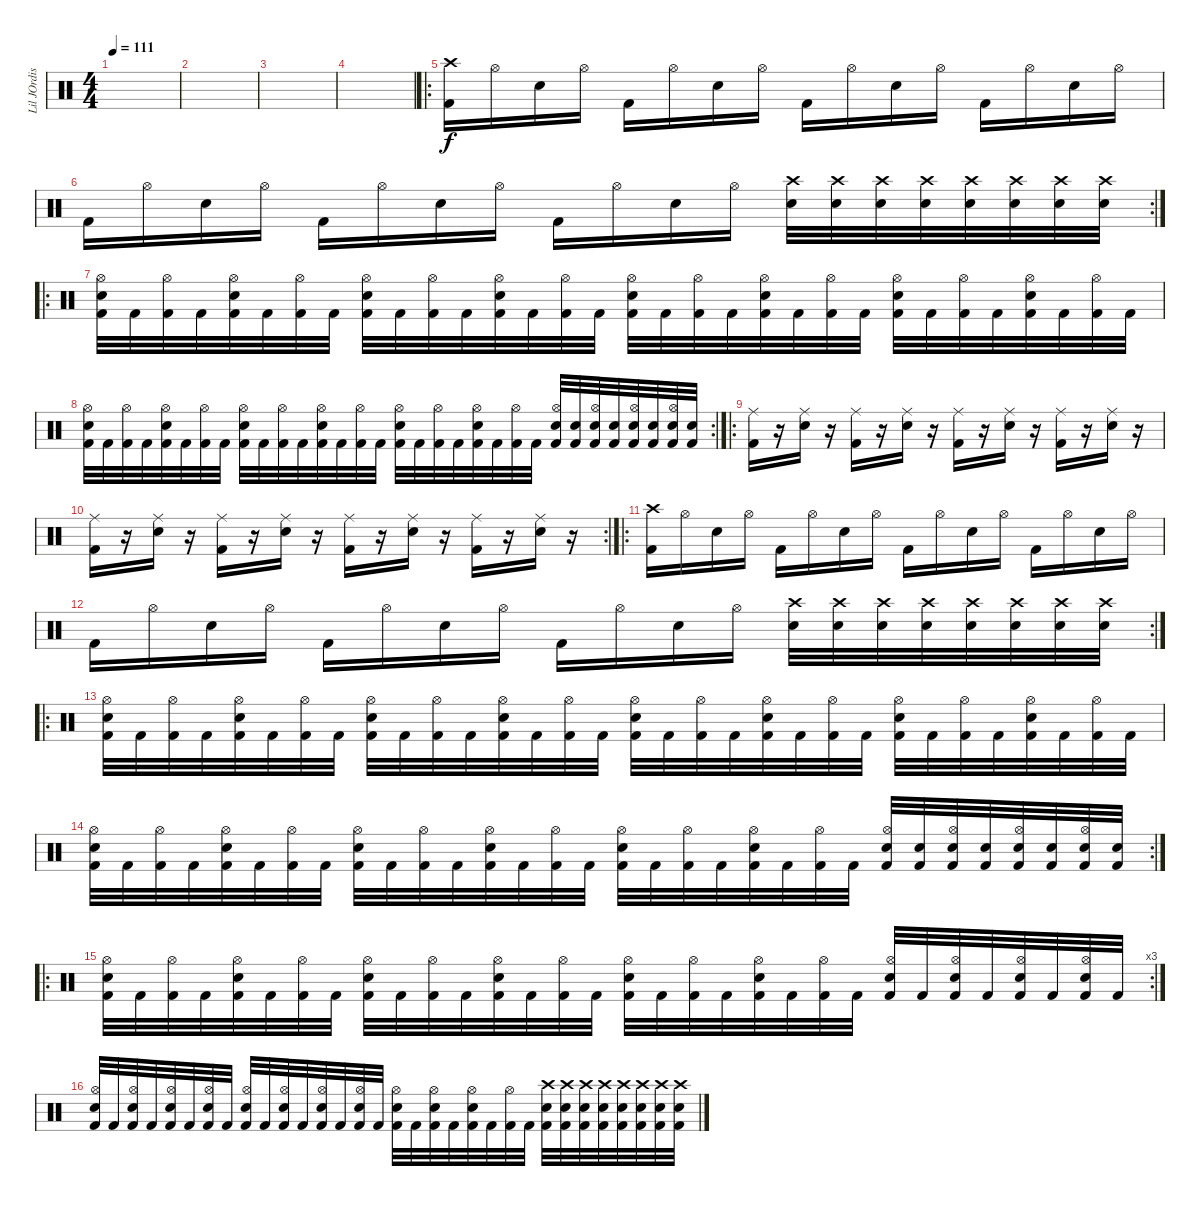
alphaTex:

\track ("Lil JOrdison" "Lil JOrdis") {instrument percussion}
\staff {score}
\articulation defaults
\ts (4 4)
\tempo 111
\clef neutral
\ks c
|
|
|
|
\ro
("Crash high (hit)" "Kick (hit) 2").16 "Hi-Hat (open)".16 "Electric Snare (hit)".16 "Hi-Hat (open)".16 "Kick (hit) 2".16 "Hi-Hat (open)".16 "Electric Snare (hit)".16 "Hi-Hat (open)".16 "Kick (hit) 2".16 "Hi-Hat (open)".16 "Electric Snare (hit)".16 "Hi-Hat (open)".16 "Kick (hit) 2".16 "Hi-Hat (open)".16 "Electric Snare (hit)".16 "Hi-Hat (open)".16 |
\rc 2 "Kick (hit) 2".16 "Hi-Hat (open)".16 "Electric Snare (hit)".16 "Hi-Hat (open)".16 "Kick (hit) 2".16 "Hi-Hat (open)".16 "Electric Snare (hit)".16 "Hi-Hat (open)".16 "Kick (hit) 2".16 "Hi-Hat (open)".16 "Electric Snare (hit)".16 "Hi-Hat (open)".16
("Crash high (hit)" "Electric Snare (hit)").32 ("Crash high (hit)" "Electric Snare (hit)").32 ("Crash high (hit)" "Electric Snare (hit)").32 ("Crash high (hit)" "Electric Snare (hit)").32 ("Crash high (hit)" "Electric Snare (hit)").32 ("Crash high (hit)" "Electric Snare (hit)").32 ("Crash high (hit)" "Electric Snare (hit)").32 ("Crash high (hit)" "Electric Snare (hit)").32 |
\ro
("Hi-Hat (open)" "Electric Snare (hit)" "Kick (hit) 2").32 "Kick (hit) 2".32 ("Hi-Hat (open)" "Kick (hit) 2").32 "Kick (hit) 2".32 ("Hi-Hat (open)" "Electric Snare (hit)" "Kick (hit) 2").32 "Kick (hit) 2".32 ("Hi-Hat (open)" "Kick (hit) 2").32 "Kick (hit) 2".32 ("Hi-Hat (open)" "Electric Snare (hit)" "Kick (hit) 2").32 "Kick (hit) 2".32 ("Hi-Hat (open)" "Kick (hit) 2").32 "Kick (hit) 2".32 ("Hi-Hat (open)" "Electric Snare (hit)" "Kick (hit) 2").32 "Kick (hit) 2".32 ("Hi-Hat (open)" "Kick (hit) 2").32 "Kick (hit) 2".32 ("Hi-Hat (open)" "Electric Snare (hit)" "Kick (hit) 2").32 "Kick (hit) 2".32 ("Hi-Hat (open)" "Kick (hit) 2").32 "Kick (hit) 2".32 ("Hi-Hat (open)" "Electric Snare (hit)" "Kick (hit) 2").32 "Kick (hit) 2".32 ("Hi-Hat (open)" "Kick (hit) 2").32 "Kick (hit) 2".32 ("Hi-Hat (open)" "Electric Snare (hit)" "Kick (hit) 2").32 "Kick (hit) 2".32 ("Hi-Hat (open)" "Kick (hit) 2").32 "Kick (hit) 2".32 ("Hi-Hat (open)" "Electric Snare (hit)" "Kick (hit) 2").32 "Kick (hit) 2".32 ("Hi-Hat (open)" "Kick (hit) 2").32 "Kick (hit) 2".32 |
\rc 2
("Hi-Hat (open)" "Electric Snare (hit)" "Kick (hit) 2").32 "Kick (hit) 2".32 ("Hi-Hat (open)" "Kick (hit) 2").32 "Kick (hit) 2".32 ("Hi-Hat (open)" "Electric Snare (hit)" "Kick (hit) 2").32 "Kick (hit) 2".32 ("Hi-Hat (open)" "Kick (hit) 2").32 "Kick (hit) 2".32 ("Hi-Hat (open)" "Electric Snare (hit)" "Kick (hit) 2").32 "Kick (hit) 2".32 ("Hi-Hat (open)" "Kick (hit) 2").32 "Kick (hit) 2".32 ("Hi-Hat (open)" "Electric Snare (hit)" "Kick (hit) 2").32 "Kick (hit) 2".32 ("Hi-Hat (open)" "Kick (hit) 2").32 "Kick (hit) 2".32 ("Hi-Hat (open)" "Electric Snare (hit)" "Kick (hit) 2").32 "Kick (hit) 2".32 ("Hi-Hat (open)" "Kick (hit) 2").32 "Kick (hit) 2".32 ("Hi-Hat (open)" "Electric Snare (hit)" "Kick (hit) 2").32 "Kick (hit) 2".32 ("Hi-Hat (open)" "Kick (hit) 2").32 "Kick (hit) 2".32 ("Hi-Hat (open)" "Electric Snare (hit)" "Kick (hit) 2").32 ("Electric Snare (hit)" "Kick (hit) 2").32 ("Hi-Hat (open)" "Electric Snare (hit)" "Kick (hit) 2").32 ("Electric Snare (hit)" "Kick (hit) 2").32 ("Hi-Hat (open)" "Electric Snare (hit)" "Kick (hit) 2").32 ("Electric Snare (hit)" "Kick (hit) 2").32 ("Hi-Hat (open)" "Electric Snare (hit)" "Kick (hit) 2").32 ("Electric Snare (hit)" "Kick (hit) 2").32 |
\ro
("Ride (middle)" "Kick (hit) 2").16 r.16 ("Ride (middle)" "Electric Snare (hit)").16 r.16 ("Ride (middle)" "Kick (hit) 2").16 r.16 ("Ride (middle)" "Electric Snare (hit)").16 r.16 ("Ride (middle)" "Kick (hit) 2").16 r.16 ("Ride (middle)" "Electric Snare (hit)").16 r.16 ("Ride (middle)" "Kick (hit) 2").16 r.16 ("Ride (middle)" "Electric Snare (hit)").16 r.16 |
\rc 2
("Ride (middle)" "Kick (hit) 2").16 r.16 ("Ride (middle)" "Electric Snare (hit)").16 r.16 ("Ride (middle)" "Kick (hit) 2").16 r.16 ("Ride (middle)" "Electric Snare (hit)").16 r.16 ("Ride (middle)" "Kick (hit) 2").16 r.16 ("Ride (middle)" "Electric Snare (hit)").16 r.16 ("Ride (middle)" "Kick (hit) 2").16 r.16 ("Ride (middle)" "Electric Snare (hit)").16 r.16 |
\ro
("Crash high (hit)" "Kick (hit) 2").16 "Hi-Hat (open)".16 "Electric Snare (hit)".16 "Hi-Hat (open)".16 "Kick (hit) 2".16 "Hi-Hat (open)".16 "Electric Snare (hit)".16 "Hi-Hat (open)".16 "Kick (hit) 2".16 "Hi-Hat (open)".16 "Electric Snare (hit)".16 "Hi-Hat (open)".16 "Kick (hit) 2".16 "Hi-Hat (open)".16 "Electric Snare (hit)".16 "Hi-Hat (open)".16 |
\rc 2 "Kick (hit) 2".16 "Hi-Hat (open)".16 "Electric Snare (hit)".16 "Hi-Hat (open)".16 "Kick (hit) 2".16 "Hi-Hat (open)".16 "Electric Snare (hit)".16 "Hi-Hat (open)".16 "Kick (hit) 2".16 "Hi-Hat (open)".16 "Electric Snare (hit)".16 "Hi-Hat (open)".16
("Crash high (hit)" "Electric Snare (hit)").32 ("Crash high (hit)" "Electric Snare (hit)").32 ("Crash high (hit)" "Electric Snare (hit)").32 ("Crash high (hit)" "Electric Snare (hit)").32 ("Crash high (hit)" "Electric Snare (hit)").32 ("Crash high (hit)" "Electric Snare (hit)").32 ("Crash high (hit)" "Electric Snare (hit)").32 ("Crash high (hit)" "Electric Snare (hit)").32 |
\ro
("Hi-Hat (open)" "Electric Snare (hit)" "Kick (hit) 2").32 "Kick (hit) 2".32 ("Hi-Hat (open)" "Kick (hit) 2").32 "Kick (hit) 2".32 ("Hi-Hat (open)" "Electric Snare (hit)" "Kick (hit) 2").32 "Kick (hit) 2".32 ("Hi-Hat (open)" "Kick (hit) 2").32 "Kick (hit) 2".32 ("Hi-Hat (open)" "Electric Snare (hit)" "Kick (hit) 2").32 "Kick (hit) 2".32 ("Hi-Hat (open)" "Kick (hit) 2").32 "Kick (hit) 2".32 ("Hi-Hat (open)" "Electric Snare (hit)" "Kick (hit) 2").32 "Kick (hit) 2".32 ("Hi-Hat (open)" "Kick (hit) 2").32 "Kick (hit) 2".32 ("Hi-Hat (open)" "Electric Snare (hit)" "Kick (hit) 2").32 "Kick (hit) 2".32 ("Hi-Hat (open)" "Kick (hit) 2").32 "Kick (hit) 2".32 ("Hi-Hat (open)" "Electric Snare (hit)" "Kick (hit) 2").32 "Kick (hit) 2".32 ("Hi-Hat (open)" "Kick (hit) 2").32 "Kick (hit) 2".32 ("Hi-Hat (open)" "Electric Snare (hit)" "Kick (hit) 2").32 "Kick (hit) 2".32 ("Hi-Hat (open)" "Kick (hit) 2").32 "Kick (hit) 2".32 ("Hi-Hat (open)" "Electric Snare (hit)" "Kick (hit) 2").32 "Kick (hit) 2".32 ("Hi-Hat (open)" "Kick (hit) 2").32 "Kick (hit) 2".32 |
\rc 2
("Hi-Hat (open)" "Electric Snare (hit)" "Kick (hit) 2").32 "Kick (hit) 2".32 ("Hi-Hat (open)" "Kick (hit) 2").32 "Kick (hit) 2".32 ("Hi-Hat (open)" "Electric Snare (hit)" "Kick (hit) 2").32 "Kick (hit) 2".32 ("Hi-Hat (open)" "Kick (hit) 2").32 "Kick (hit) 2".32 ("Hi-Hat (open)" "Electric Snare (hit)" "Kick (hit) 2").32 "Kick (hit) 2".32 ("Hi-Hat (open)" "Kick (hit) 2").32 "Kick (hit) 2".32 ("Hi-Hat (open)" "Electric Snare (hit)" "Kick (hit) 2").32 "Kick (hit) 2".32 ("Hi-Hat (open)" "Kick (hit) 2").32 "Kick (hit) 2".32 ("Hi-Hat (open)" "Electric Snare (hit)" "Kick (hit) 2").32 "Kick (hit) 2".32 ("Hi-Hat (open)" "Kick (hit) 2").32 "Kick (hit) 2".32 ("Hi-Hat (open)" "Electric Snare (hit)" "Kick (hit) 2").32 "Kick (hit) 2".32 ("Hi-Hat (open)" "Kick (hit) 2").32 "Kick (hit) 2".32 ("Hi-Hat (open)" "Electric Snare (hit)" "Kick (hit) 2").32 ("Electric Snare (hit)" "Kick (hit) 2").32 ("Hi-Hat (open)" "Electric Snare (hit)" "Kick (hit) 2").32 ("Electric Snare (hit)" "Kick (hit) 2").32 ("Hi-Hat (open)" "Electric Snare (hit)" "Kick (hit) 2").32 ("Electric Snare (hit)" "Kick (hit) 2").32 ("Hi-Hat (open)" "Electric Snare (hit)" "Kick (hit) 2").32 ("Electric Snare (hit)" "Kick (hit) 2").32 |
\ro
\rc 3
("Hi-Hat (open)" "Electric Snare (hit)" "Kick (hit) 2").32 "Kick (hit) 2".32 ("Hi-Hat (open)" "Kick (hit) 2").32 "Kick (hit) 2".32 ("Hi-Hat (open)" "Electric Snare (hit)" "Kick (hit) 2").32 "Kick (hit) 2".32 ("Hi-Hat (open)" "Kick (hit) 2").32 "Kick (hit) 2".32 ("Hi-Hat (open)" "Electric Snare (hit)" "Kick (hit) 2").32 "Kick (hit) 2".32 ("Hi-Hat (open)" "Kick (hit) 2").32 "Kick (hit) 2".32 ("Hi-Hat (open)" "Electric Snare (hit)" "Kick (hit) 2").32 "Kick (hit) 2".32 ("Hi-Hat (open)" "Kick (hit) 2").32 "Kick (hit) 2".32 ("Hi-Hat (open)" "Electric Snare (hit)" "Kick (hit) 2").32 "Kick (hit) 2".32 ("Hi-Hat (open)" "Kick (hit) 2").32 "Kick (hit) 2".32 ("Hi-Hat (open)" "Electric Snare (hit)" "Kick (hit) 2").32 "Kick (hit) 2".32 ("Hi-Hat (open)" "Kick (hit) 2").32 "Kick (hit) 2".32 ("Hi-Hat (open)" "Electric Snare (hit)" "Kick (hit) 2").32 "Kick (hit) 2".32 ("Hi-Hat (open)" "Electric Snare (hit)" "Kick (hit) 2").32 "Kick (hit) 2".32 ("Hi-Hat (open)" "Electric Snare (hit)" "Kick (hit) 2").32 "Kick (hit) 2".32 ("Hi-Hat (open)" "Electric Snare (hit)" "Kick (hit) 2").32 "Kick (hit) 2".32 |
("Hi-Hat (open)" "Electric Snare (hit)" "Kick (hit) 2").32 "Kick (hit) 2".32 ("Hi-Hat (open)" "Electric Snare (hit)" "Kick (hit) 2").32 "Kick (hit) 2".32 ("Hi-Hat (open)" "Electric Snare (hit)" "Kick (hit) 2").32 "Kick (hit) 2".32 ("Hi-Hat (open)" "Electric Snare (hit)" "Kick (hit) 2").32 "Kick (hit) 2".32 ("Hi-Hat (open)" "Electric Snare (hit)" "Kick (hit) 2").32 "Kick (hit) 2".32 ("Hi-Hat (open)" "Electric Snare (hit)" "Kick (hit) 2").32 "Kick (hit) 2".32 ("Hi-Hat (open)" "Electric Snare (hit)" "Kick (hit) 2").32 "Kick (hit) 2".32 ("Hi-Hat (open)" "Electric Snare (hit)" "Kick (hit) 2").32 "Kick (hit) 2".32 ("Hi-Hat (open)" "Electric Snare (hit)" "Kick (hit) 2").32 "Kick (hit) 2".32 ("Hi-Hat (open)" "Electric Snare (hit)" "Kick (hit) 2").32 "Kick (hit) 2".32 ("Hi-Hat (open)" "Electric Snare (hit)" "Kick (hit) 2").32 "Kick (hit) 2".32 ("Hi-Hat (open)" "Kick (hit) 2").32 "Kick (hit) 2".32 ("Crash high (hit)" "Electric Snare (hit)" "Kick (hit) 2").32 ("Crash high (hit)" "Electric Snare (hit)" "Kick (hit) 2").32 ("Crash high (hit)" "Electric Snare (hit)" "Kick (hit) 2").32 ("Crash high (hit)" "Electric Snare (hit)" "Kick (hit) 2").32 ("Crash high (hit)" "Electric Snare (hit)" "Kick (hit) 2").32 ("Crash high (hit)" "Electric Snare (hit)" "Kick (hit) 2").32 ("Crash high (hit)" "Electric Snare (hit)" "Kick (hit) 2").32 ("Crash high (hit)" "Electric Snare (hit)" "Kick (hit) 2").32
